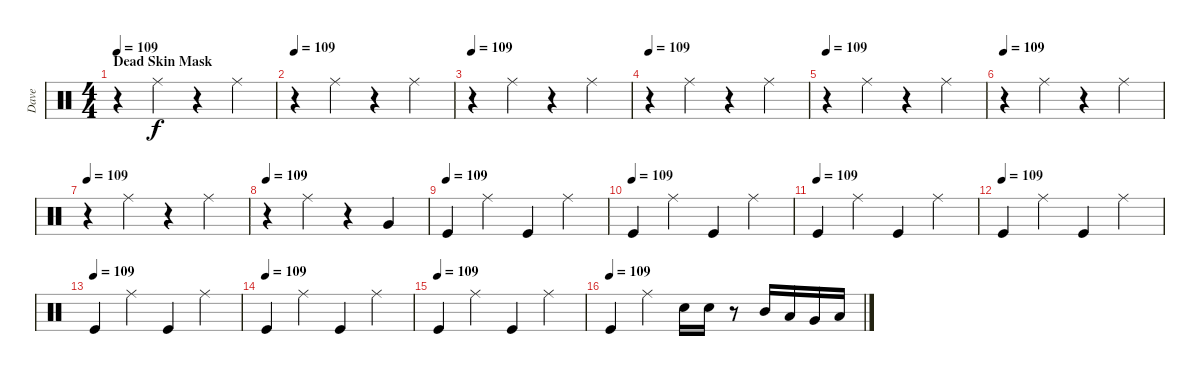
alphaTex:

\track ("Dave" "Dave") {instrument percussion}
\staff {score}
\articulation defaults
\ts (4 4)
\section ("" "Dead Skin Mask")
\tempo 109
\clef neutral
\ks c
r.4{dy f} "Ride (middle)".4 r.4 "Ride (middle)".4 |
\tempo 109
r.4 "Ride (middle)".4 r.4 "Ride (middle)".4 |
\tempo 109
r.4 "Ride (middle)".4 r.4 "Ride (middle)".4 |
\tempo 109
r.4 "Ride (middle)".4 r.4 "Ride (middle)".4 |
\tempo 109
r.4 "Ride (middle)".4 r.4 "Ride (middle)".4 |
\tempo 109
r.4 "Ride (middle)".4 r.4 "Ride (middle)".4 |
\tempo 109
r.4 "Ride (middle)".4 r.4 "Ride (middle)".4 |
\tempo 109
r.4 "Ride (middle)".4 r.4 "Very Low Tom (hit)".4 |
\tempo (109)
"Kick (hit)".4 "Ride (middle)".4 "Kick (hit)".4 "Ride (middle)".4 |
\tempo (109)
"Kick (hit)".4 "Ride (middle)".4 "Kick (hit)".4 "Ride (middle)".4 |
\tempo (109)
"Kick (hit)".4 "Ride (middle)".4 "Kick (hit)".4 "Ride (middle)".4 |
\tempo (109)
"Kick (hit)".4 "Ride (middle)".4 "Kick (hit)".4 "Ride (middle)".4 |
\tempo (109)
"Kick (hit)".4 "Ride (middle)".4 "Kick (hit)".4 "Ride (middle)".4 |
\tempo (109)
"Kick (hit)".4 "Ride (middle)".4 "Kick (hit)".4 "Ride (middle)".4 |
\tempo (109)
"Kick (hit)".4 "Ride (middle)".4 "Kick (hit)".4 "Ride (middle)".4 |
\tempo (109)
"Kick (hit)".4 "Ride (middle)".4 "Snare (hit) 2".16 "Snare (hit) 2".16 r.8 "Mid Tom (hit)".16 "Low Tom (hit)".16 "Very Low Tom (hit)".16 "Low Floor Tom (hit)".16
